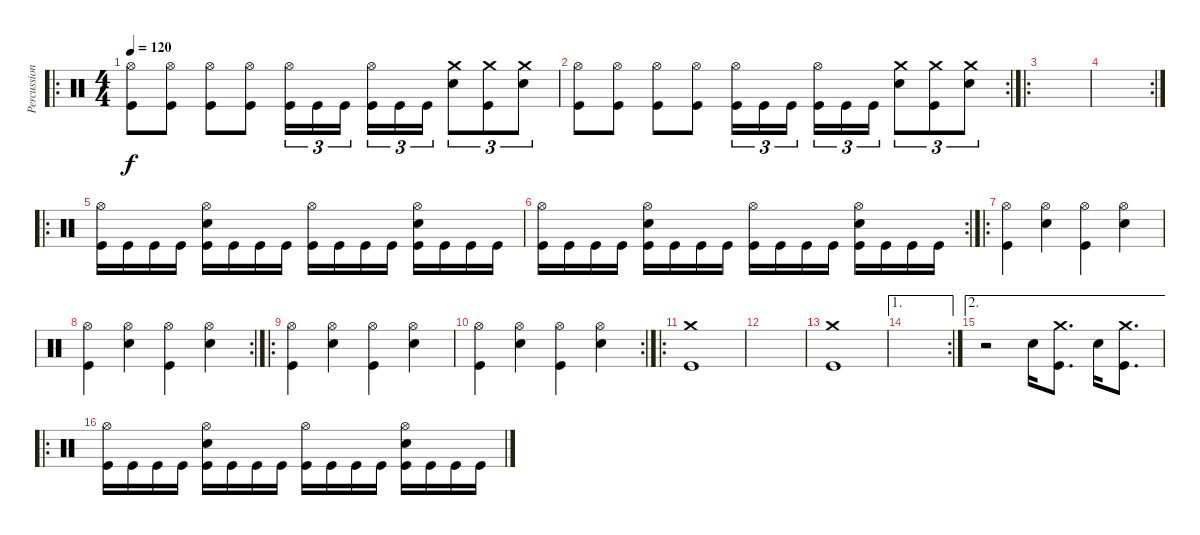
\track ("Percussion" "Percussion") {instrument percussion}
\staff {score}
\articulation defaults
\ro
\ts (4 4)
\tempo 120
\clef neutral
\ks c
("Hi-Hat (open)" "Kick (hit)").8{dy f} ("Hi-Hat (open)" "Kick (hit)").8 ("Hi-Hat (open)" "Kick (hit)").8 ("Hi-Hat (open)" "Kick (hit)").8 ("Hi-Hat (open)" "Kick (hit)").16{tu (3 2)} "Kick (hit)".16{tu (3 2)} "Kick (hit)".16{tu (3 2) beam splitsecondary} ("Hi-Hat (open)" "Kick (hit)").16{tu (3 2)} "Kick (hit)".16{tu (3 2)} "Kick (hit)".16{tu (3 2)} ("Crash medium (hit)" "Snare (hit) 2").8{tu (3 2)} ("Crash medium (hit)" "Kick (hit)").8{tu (3 2)} ("Crash medium (hit)" "Snare (hit) 2").8{tu (3 2)} |
\rc 2
("Hi-Hat (open)" "Kick (hit)").8 ("Hi-Hat (open)" "Kick (hit)").8 ("Hi-Hat (open)" "Kick (hit)").8 ("Hi-Hat (open)" "Kick (hit)").8 ("Hi-Hat (open)" "Kick (hit)").16{tu (3 2)} "Kick (hit)".16{tu (3 2)} "Kick (hit)".16{tu (3 2) beam splitsecondary} ("Hi-Hat (open)" "Kick (hit)").16{tu (3 2)} "Kick (hit)".16{tu (3 2)} "Kick (hit)".16{tu (3 2)} ("Crash medium (hit)" "Snare (hit) 2").8{tu (3 2)} ("Crash medium (hit)" "Kick (hit)").8{tu (3 2)} ("Crash medium (hit)" "Snare (hit) 2").8{tu (3 2)} |
\ro
|
\rc 2
|
\ro
("Hi-Hat (open)" "Kick (hit)").16 "Kick (hit)".16 "Kick (hit)".16 "Kick (hit)".16 ("Hi-Hat (open)" "Snare (hit) 2" "Kick (hit)").16 "Kick (hit)".16 "Kick (hit)".16 "Kick (hit)".16 ("Hi-Hat (open)" "Kick (hit)").16 "Kick (hit)".16 "Kick (hit)".16 "Kick (hit)".16 ("Hi-Hat (open)" "Snare (hit) 2" "Kick (hit)").16 "Kick (hit)".16 "Kick (hit)".16 "Kick (hit)".16 |
\rc 2
("Hi-Hat (open)" "Kick (hit)").16 "Kick (hit)".16 "Kick (hit)".16 "Kick (hit)".16 ("Hi-Hat (open)" "Snare (hit) 2" "Kick (hit)").16 "Kick (hit)".16 "Kick (hit)".16 "Kick (hit)".16 ("Hi-Hat (open)" "Kick (hit)").16 "Kick (hit)".16 "Kick (hit)".16 "Kick (hit)".16 ("Hi-Hat (open)" "Snare (hit) 2" "Kick (hit)").16 "Kick (hit)".16 "Kick (hit)".16 "Kick (hit)".16 |
\ro
("Hi-Hat (open)" "Kick (hit)").4 ("Hi-Hat (open)" "Snare (hit) 2").4 ("Hi-Hat (open)" "Kick (hit)").4 ("Hi-Hat (open)" "Snare (hit) 2").4 |
\rc 2
("Hi-Hat (open)" "Kick (hit)").4 ("Hi-Hat (open)" "Snare (hit) 2").4 ("Hi-Hat (open)" "Kick (hit)").4 ("Hi-Hat (open)" "Snare (hit) 2").4 |
\ro
("Hi-Hat (open)" "Kick (hit)").4 ("Hi-Hat (open)" "Snare (hit) 2").4 ("Hi-Hat (open)" "Kick (hit)").4 ("Hi-Hat (open)" "Snare (hit) 2").4 |
\rc 2
("Hi-Hat (open)" "Kick (hit)").4 ("Hi-Hat (open)" "Snare (hit) 2").4 ("Hi-Hat (open)" "Kick (hit)").4 ("Hi-Hat (open)" "Snare (hit) 2").4 |
\ro
("Crash medium (hit)" "Kick (hit)").1 |
|
("Crash medium (hit)" "Kick (hit)").1 |
\ae 1
\rc 2
|
\ae 2
r.2 "Snare (hit) 2".16 ("Crash medium (hit)" "Kick (hit)").8{d} "Snare (hit) 2".16 ("Crash medium (hit)" "Kick (hit)").8{d} |
\ro
("Hi-Hat (open)" "Kick (hit)").16 "Kick (hit)".16 "Kick (hit)".16 "Kick (hit)".16 ("Hi-Hat (open)" "Snare (hit) 2" "Kick (hit)").16 "Kick (hit)".16 "Kick (hit)".16 "Kick (hit)".16 ("Hi-Hat (open)" "Kick (hit)").16 "Kick (hit)".16 "Kick (hit)".16 "Kick (hit)".16 ("Hi-Hat (open)" "Snare (hit) 2" "Kick (hit)").16 "Kick (hit)".16 "Kick (hit)".16 "Kick (hit)".16
